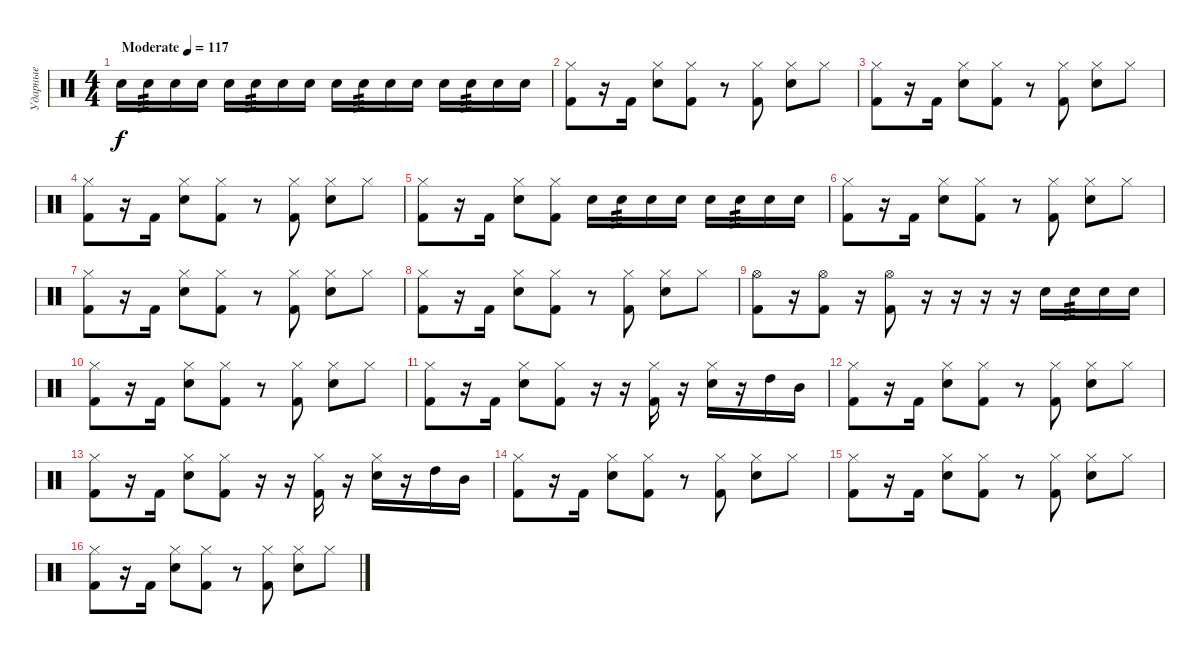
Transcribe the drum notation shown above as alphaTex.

\track ("Ударные" "Ударные") {instrument percussion}
\staff {score}
\articulation defaults
\ts (4 4)
\tempo (117 "Moderate")
\clef neutral
\ks c "Electric Snare (hit)".16{dy f} "Electric Snare (hit)".16{tp 3} "Electric Snare (hit)".16 "Electric Snare (hit)".16 "Electric Snare (hit)".16 "Electric Snare (hit)".16{tp 3} "Electric Snare (hit)".16 "Electric Snare (hit)".16 "Electric Snare (hit)".16 "Electric Snare (hit)".16{tp 3} "Electric Snare (hit)".16 "Electric Snare (hit)".16 "Electric Snare (hit)".16 "Electric Snare (hit)".16{tp 3} "Electric Snare (hit)".16 "Electric Snare (hit)".16
|
("Kick (hit) 2" "Hi-Hat (closed)").8 r.16 "Kick (hit) 2".16 ("Electric Snare (hit)" "Hi-Hat (closed)").8 ("Kick (hit) 2" "Hi-Hat (closed)").8 r.8 ("Kick (hit) 2" "Hi-Hat (closed)").8 ("Electric Snare (hit)" "Hi-Hat (closed)").8 "Hi-Hat (closed)".8 |
("Kick (hit) 2" "Hi-Hat (closed)").8 r.16 "Kick (hit) 2".16 ("Electric Snare (hit)" "Hi-Hat (closed)").8 ("Kick (hit) 2" "Hi-Hat (closed)").8 r.8 ("Kick (hit) 2" "Hi-Hat (closed)").8 ("Electric Snare (hit)" "Hi-Hat (closed)").8 "Hi-Hat (closed)".8 |
("Kick (hit) 2" "Hi-Hat (closed)").8 r.16 "Kick (hit) 2".16 ("Electric Snare (hit)" "Hi-Hat (closed)").8 ("Kick (hit) 2" "Hi-Hat (closed)").8 r.8 ("Kick (hit) 2" "Hi-Hat (closed)").8 ("Electric Snare (hit)" "Hi-Hat (closed)").8 "Hi-Hat (closed)".8 |
("Kick (hit) 2" "Hi-Hat (closed)").8 r.16 "Kick (hit) 2".16 ("Electric Snare (hit)" "Hi-Hat (closed)").8 ("Kick (hit) 2" "Hi-Hat (closed)").8 "Electric Snare (hit)".16 "Electric Snare (hit)".16{tp 3} "Electric Snare (hit)".16 "Electric Snare (hit)".16 "Electric Snare (hit)".16 "Electric Snare (hit)".16{tp 3} "Electric Snare (hit)".16 "Electric Snare (hit)".16 |
("Kick (hit) 2" "Hi-Hat (closed)").8 r.16 "Kick (hit) 2".16 ("Electric Snare (hit)" "Hi-Hat (closed)").8 ("Kick (hit) 2" "Hi-Hat (closed)").8 r.8 ("Kick (hit) 2" "Hi-Hat (closed)").8 ("Electric Snare (hit)" "Hi-Hat (closed)").8 "Hi-Hat (closed)".8 |
("Kick (hit) 2" "Hi-Hat (closed)").8 r.16 "Kick (hit) 2".16 ("Electric Snare (hit)" "Hi-Hat (closed)").8 ("Kick (hit) 2" "Hi-Hat (closed)").8 r.8 ("Kick (hit) 2" "Hi-Hat (closed)").8 ("Electric Snare (hit)" "Hi-Hat (closed)").8 "Hi-Hat (closed)".8 |
("Kick (hit) 2" "Hi-Hat (closed)").8 r.16 "Kick (hit) 2".16 ("Electric Snare (hit)" "Hi-Hat (closed)").8 ("Kick (hit) 2" "Hi-Hat (closed)").8 r.8 ("Kick (hit) 2" "Hi-Hat (closed)").8 ("Electric Snare (hit)" "Hi-Hat (closed)").8 "Hi-Hat (closed)".8 |
("Kick (hit) 2" "Hi-Hat (open)").8 r.16 ("Kick (hit) 2" "Hi-Hat (open)").8 r.16 ("Kick (hit) 2" "Hi-Hat (open)").8 r.16 r.16 r.16 r.16 "Electric Snare (hit)".16 "Electric Snare (hit)".16{tp 3} "Electric Snare (hit)".16 "Electric Snare (hit)".16 |
("Kick (hit) 2" "Hi-Hat (closed)").8 r.16 "Kick (hit) 2".16 ("Electric Snare (hit)" "Hi-Hat (closed)").8 ("Kick (hit) 2" "Hi-Hat (closed)").8 r.8 ("Kick (hit) 2" "Hi-Hat (closed)").8 ("Electric Snare (hit)" "Hi-Hat (closed)").8 "Hi-Hat (closed)".8 |
("Kick (hit) 2" "Hi-Hat (closed)").8 r.16 "Kick (hit) 2".16 ("Electric Snare (hit)" "Hi-Hat (closed)").8 ("Kick (hit) 2" "Hi-Hat (closed)").8 r.16 r.16 ("Kick (hit) 2" "Hi-Hat (closed)").16 r.16 ("Electric Snare (hit)" "Hi-Hat (closed)").16 r.16 "High Tom (hit)".16 "Mid Tom (hit)".16 |
("Kick (hit) 2" "Hi-Hat (closed)").8 r.16 "Kick (hit) 2".16 ("Electric Snare (hit)" "Hi-Hat (closed)").8 ("Kick (hit) 2" "Hi-Hat (closed)").8 r.8 ("Kick (hit) 2" "Hi-Hat (closed)").8 ("Electric Snare (hit)" "Hi-Hat (closed)").8 "Hi-Hat (closed)".8 |
("Kick (hit) 2" "Hi-Hat (closed)").8 r.16 "Kick (hit) 2".16 ("Electric Snare (hit)" "Hi-Hat (closed)").8 ("Kick (hit) 2" "Hi-Hat (closed)").8 r.16 r.16 ("Kick (hit) 2" "Hi-Hat (closed)").16 r.16 ("Electric Snare (hit)" "Hi-Hat (closed)").16 r.16 "High Tom (hit)".16 "Mid Tom (hit)".16 |
("Kick (hit) 2" "Hi-Hat (closed)").8 r.16 "Kick (hit) 2".16 ("Electric Snare (hit)" "Hi-Hat (closed)").8 ("Kick (hit) 2" "Hi-Hat (closed)").8 r.8 ("Kick (hit) 2" "Hi-Hat (closed)").8 ("Electric Snare (hit)" "Hi-Hat (closed)").8 "Hi-Hat (closed)".8 |
("Kick (hit) 2" "Hi-Hat (closed)").8 r.16 "Kick (hit) 2".16 ("Electric Snare (hit)" "Hi-Hat (closed)").8 ("Kick (hit) 2" "Hi-Hat (closed)").8 r.8 ("Kick (hit) 2" "Hi-Hat (closed)").8 ("Electric Snare (hit)" "Hi-Hat (closed)").8 "Hi-Hat (closed)".8 |
("Kick (hit) 2" "Hi-Hat (closed)").8 r.16 "Kick (hit) 2".16 ("Electric Snare (hit)" "Hi-Hat (closed)").8 ("Kick (hit) 2" "Hi-Hat (closed)").8 r.8 ("Kick (hit) 2" "Hi-Hat (closed)").8 ("Electric Snare (hit)" "Hi-Hat (closed)").8 "Hi-Hat (closed)".8
